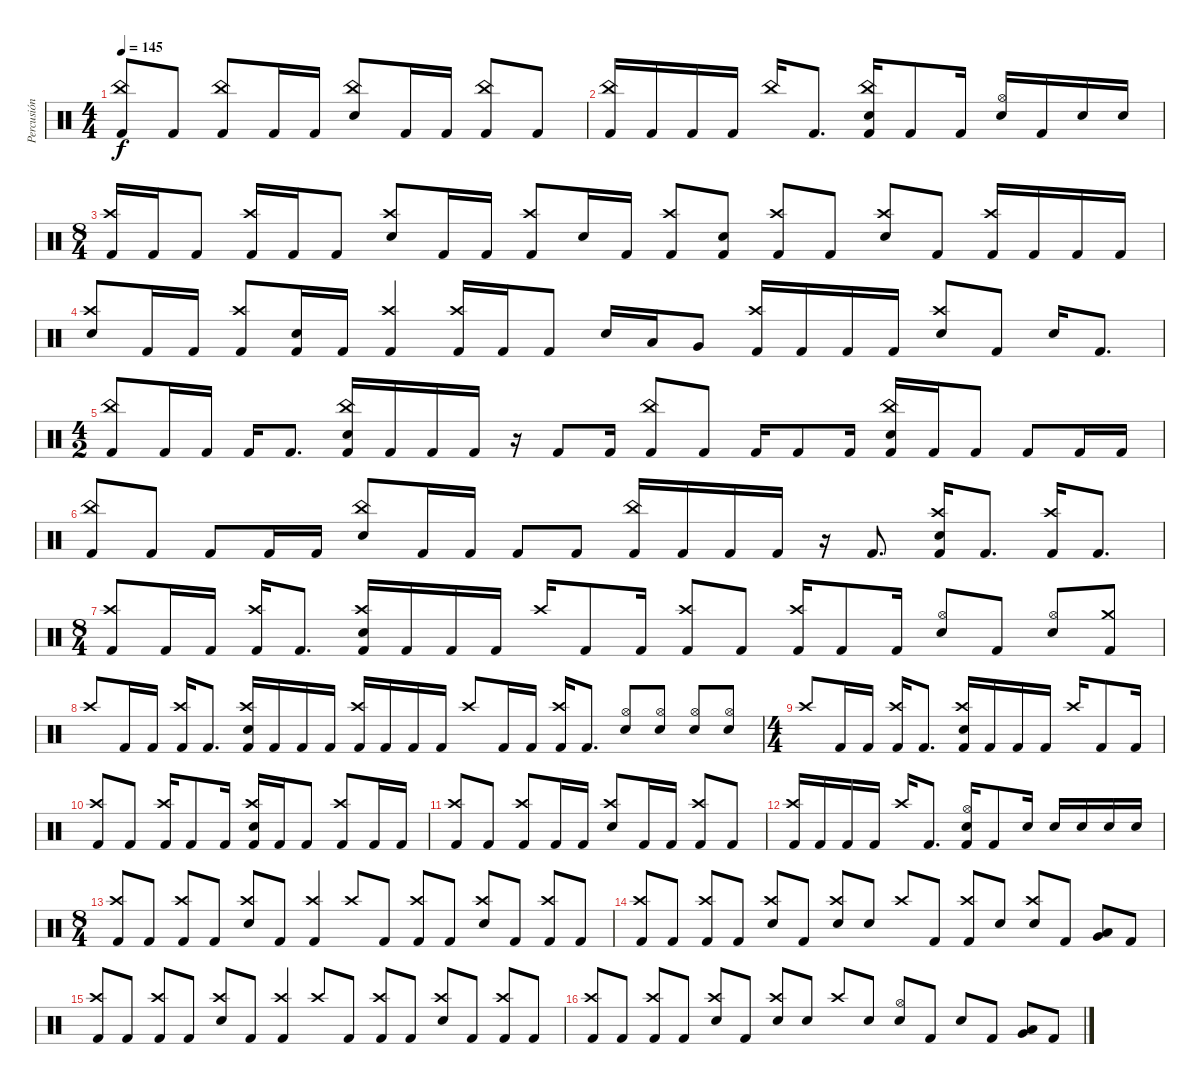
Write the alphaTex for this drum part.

\track ("Percusión" "Percusión") {instrument percussion}
\staff {score}
\articulation defaults
\ts (4 4)
\tempo 145
\clef neutral
\ks c
("China (hit)" "Kick (hit) 2").8{dy f beam Up} "Kick (hit) 2".8{beam Up} ("China (hit)" "Kick (hit) 2").8{beam Up} "Kick (hit) 2".16{beam Up} "Kick (hit) 2".16{beam Up} ("China (hit)" "Electric Snare (hit)").8{beam Up} "Kick (hit) 2".16{beam Up} "Kick (hit) 2".16{beam Up} ("China (hit)" "Kick (hit) 2").8{beam Up} "Kick (hit) 2".8{beam Up} |
("China (hit)" "Kick (hit) 2").16{beam Up} "Kick (hit) 2".16{beam Up} "Kick (hit) 2".16{beam Up} "Kick (hit) 2".16{beam Up} "China (hit)".16{beam Up} "Kick (hit) 2".8{d beam Up} ("China (hit)" "Electric Snare (hit)" "Kick (hit) 2").16{beam Up} "Kick (hit) 2".8{beam Up} "Kick (hit) 2".16{beam Up} ("Hi-Hat (open)" "Electric Snare (hit)").16{beam Up} "Kick (hit) 2".16{beam Up} "Electric Snare (hit)".16{beam Up} "Electric Snare (hit)".16{beam Up} |
\ts (8 4)
("Crash high (hit)" "Kick (hit) 2").16{beam Up} "Kick (hit) 2".16{beam Up} "Kick (hit) 2".8{beam Up} ("Crash high (hit)" "Kick (hit) 2").16{beam Up} "Kick (hit) 2".16{beam Up} "Kick (hit) 2".8{beam Up} ("Crash high (hit)" "Electric Snare (hit)").8{beam Up} "Kick (hit) 2".16{beam Up} "Kick (hit) 2".16{beam Up} ("Crash high (hit)" "Kick (hit) 2").8{beam Up} "Electric Snare (hit)".16{beam Up} "Kick (hit) 2".16{beam Up} ("Crash high (hit)" "Kick (hit) 2").8{beam Up} ("Electric Snare (hit)" "Kick (hit) 2").8{beam Up} ("Crash high (hit)" "Kick (hit) 2").8{beam Up} "Kick (hit) 2".8{beam Up} ("Crash high (hit)" "Electric Snare (hit)").8{beam Up} "Kick (hit) 2".8{beam Up} ("Crash high (hit)" "Kick (hit) 2").16{beam Up} "Kick (hit) 2".16{beam Up} "Kick (hit) 2".16{beam Up} "Kick (hit) 2".16{beam Up} |
("Crash high (hit)" "Electric Snare (hit)").8{beam Up} "Kick (hit) 2".16{beam Up} "Kick (hit) 2".16{beam Up} ("Crash high (hit)" "Kick (hit) 2").8{beam Up} ("Electric Snare (hit)" "Kick (hit) 2").16{beam Up} "Kick (hit) 2".16{beam Up} ("Crash high (hit)" "Kick (hit) 2").4{beam Up} ("Crash high (hit)" "Kick (hit) 2").16{beam Up} "Kick (hit) 2".16{beam Up} "Kick (hit) 2".8{beam Up} "Electric Snare (hit)".16 "Low Tom (hit)".16 "Very Low Tom (hit)".8 ("Crash high (hit)" "Kick (hit) 2").16{beam Up} "Kick (hit) 2".16{beam Up} "Kick (hit) 2".16{beam Up} "Kick (hit) 2".16{beam Up} ("Crash high (hit)" "Electric Snare (hit)").8{beam Up} "Kick (hit) 2".8{beam Up} "Electric Snare (hit)".16 "Kick (hit) 2".8{d} |
\ts (4 2)
("China (hit)" "Kick (hit) 2").8{beam Up} "Kick (hit) 2".16{beam Up} "Kick (hit) 2".16{beam Up} "Kick (hit) 2".16 "Kick (hit) 2".8{d} ("China (hit)" "Electric Snare (hit)" "Kick (hit) 2").16{beam Up} "Kick (hit) 2".16{beam Up} "Kick (hit) 2".16{beam Up} "Kick (hit) 2".16{beam Up} r.16 "Kick (hit) 2".8 "Kick (hit) 2".16 ("China (hit)" "Kick (hit) 2").8{beam Up} "Kick (hit) 2".8{beam Up} "Kick (hit) 2".16 "Kick (hit) 2".8 "Kick (hit) 2".16 ("China (hit)" "Electric Snare (hit)" "Kick (hit) 2").16{beam Up} "Kick (hit) 2".16{beam Up} "Kick (hit) 2".8{beam Up} "Kick (hit) 2".8 "Kick (hit) 2".16 "Kick (hit) 2".16 |
("China (hit)" "Kick (hit) 2").8{beam Up} "Kick (hit) 2".8{beam Up} "Kick (hit) 2".8 "Kick (hit) 2".16 "Kick (hit) 2".16 ("China (hit)" "Electric Snare (hit)").8{beam Up} "Kick (hit) 2".16{beam Up} "Kick (hit) 2".16{beam Up} "Kick (hit) 2".8 "Kick (hit) 2".8 ("China (hit)" "Kick (hit) 2").16{beam Up} "Kick (hit) 2".16{beam Up} "Kick (hit) 2".16{beam Up} "Kick (hit) 2".16{beam Up} r.16 "Kick (hit) 2".8{d} ("Crash high (hit)" "Electric Snare (hit)" "Kick (hit) 2").16{beam Up} "Kick (hit) 2".8{d beam Up} ("Crash high (hit)" "Kick (hit) 2").16{beam Up} "Kick (hit) 2".8{d beam Up} |
\ts (8 4)
("Crash high (hit)" "Kick (hit) 2").8{beam Up} "Kick (hit) 2".16{beam Up} "Kick (hit) 2".16{beam Up} ("Crash high (hit)" "Kick (hit) 2").16{beam Up} "Kick (hit) 2".8{d beam Up} ("Crash high (hit)" "Electric Snare (hit)" "Kick (hit) 2").16{beam Up} "Kick (hit) 2".16{beam Up} "Kick (hit) 2".16{beam Up} "Kick (hit) 2".16{beam Up} "Crash high (hit)".16{beam Up} "Kick (hit) 2".8{beam Up} "Kick (hit) 2".16{beam Up} ("Crash high (hit)" "Kick (hit) 2").8{beam Up} "Kick (hit) 2".8{beam Up} ("Crash high (hit)" "Kick (hit) 2").16{beam Up} "Kick (hit) 2".8{beam Up} "Kick (hit) 2".16{beam Up} ("Hi-Hat (open)" "Electric Snare (hit)").8{beam Up} "Kick (hit) 2".8{beam Up} ("Hi-Hat (open)" "Electric Snare (hit)").8{beam Up} ("Crash medium (hit)" "Kick (hit) 2").8{beam Up} |
"Crash high (hit)".8{beam Up} "Kick (hit) 2".16{beam Up} "Kick (hit) 2".16{beam Up} ("Crash high (hit)" "Kick (hit) 2").16{beam Up} "Kick (hit) 2".8{d beam Up} ("Crash high (hit)" "Electric Snare (hit)" "Kick (hit) 2").16{beam Up} "Kick (hit) 2".16{beam Up} "Kick (hit) 2".16{beam Up} "Kick (hit) 2".16{beam Up} ("Crash high (hit)" "Kick (hit) 2").16{beam Up} "Kick (hit) 2".16{beam Up} "Kick (hit) 2".16{beam Up} "Kick (hit) 2".16{beam Up} "Crash high (hit)".8{beam Up} "Kick (hit) 2".16{beam Up} "Kick (hit) 2".16{beam Up} ("Crash high (hit)" "Kick (hit) 2").16{beam Up} "Kick (hit) 2".8{d beam Up} ("Hi-Hat (open)" "Electric Snare (hit)").8{beam Up} ("Hi-Hat (open)" "Electric Snare (hit)").8{beam Up} ("Hi-Hat (open)" "Electric Snare (hit)").8{beam Up} ("Hi-Hat (open)" "Electric Snare (hit)").8{beam Up} |
\ts (4 4)
"Crash high (hit)".8{beam Up} "Kick (hit) 2".16{beam Up} "Kick (hit) 2".16{beam Up} ("Crash high (hit)" "Kick (hit) 2").16{beam Up} "Kick (hit) 2".8{d beam Up} ("Crash high (hit)" "Electric Snare (hit)" "Kick (hit) 2").16{beam Up} "Kick (hit) 2".16{beam Up} "Kick (hit) 2".16{beam Up} "Kick (hit) 2".16{beam Up} "Crash high (hit)".16{beam Up} "Kick (hit) 2".8{beam Up} "Kick (hit) 2".16{beam Up} |
("Crash high (hit)" "Kick (hit) 2").8{beam Up} "Kick (hit) 2".8{beam Up} ("Crash high (hit)" "Kick (hit) 2").16{beam Up} "Kick (hit) 2".8{beam Up} "Kick (hit) 2".16{beam Up} ("Crash high (hit)" "Electric Snare (hit)" "Kick (hit) 2").16{beam Up} "Kick (hit) 2".16{beam Up} "Kick (hit) 2".8{beam Up} ("Crash high (hit)" "Kick (hit) 2").8{beam Up} "Kick (hit) 2".16{beam Up} "Kick (hit) 2".16{beam Up} |
("Crash high (hit)" "Kick (hit) 2").8{beam Up} "Kick (hit) 2".8{beam Up} ("Crash high (hit)" "Kick (hit) 2").8{beam Up} "Kick (hit) 2".16{beam Up} "Kick (hit) 2".16{beam Up} ("Crash high (hit)" "Electric Snare (hit)").8{beam Up} "Kick (hit) 2".16{beam Up} "Kick (hit) 2".16{beam Up} ("Crash high (hit)" "Kick (hit) 2").8{beam Up} "Kick (hit) 2".8{beam Up} |
("Crash high (hit)" "Kick (hit) 2").16{beam Up} "Kick (hit) 2".16{beam Up} "Kick (hit) 2".16{beam Up} "Kick (hit) 2".16{beam Up} "Crash high (hit)".16{beam Up} "Kick (hit) 2".8{d beam Up} ("Hi-Hat (open)" "Electric Snare (hit)" "Kick (hit) 2").16{beam Up} "Kick (hit) 2".8{beam Up} "Electric Snare (hit)".16{beam Up} "Electric Snare (hit)".16{beam Up} "Electric Snare (hit)".16{beam Up} "Electric Snare (hit)".16{beam Up} "Electric Snare (hit)".16{beam Up} |
\ts (8 4)
("Crash high (hit)" "Kick (hit) 2").8{beam Up} "Kick (hit) 2".8{beam Up} ("Crash high (hit)" "Kick (hit) 2").8{beam Up} "Kick (hit) 2".8{beam Up} ("Crash high (hit)" "Electric Snare (hit)").8{beam Up} "Kick (hit) 2".8{beam Up} ("Crash high (hit)" "Kick (hit) 2").4{beam Up} "Crash high (hit)".8{beam Up} "Kick (hit) 2".8{beam Up} ("Crash high (hit)" "Kick (hit) 2").8{beam Up} "Kick (hit) 2".8{beam Up} ("Crash high (hit)" "Electric Snare (hit)").8{beam Up} "Kick (hit) 2".8{beam Up} ("Crash high (hit)" "Kick (hit) 2").8{beam Up} "Kick (hit) 2".8{beam Up} |
("Crash high (hit)" "Kick (hit) 2").8{beam Up} "Kick (hit) 2".8{beam Up} ("Crash high (hit)" "Kick (hit) 2").8{beam Up} "Kick (hit) 2".8{beam Up} ("Crash high (hit)" "Electric Snare (hit)").8{beam Up} "Kick (hit) 2".8{beam Up} ("Crash high (hit)" "Electric Snare (hit)").8{beam Up} "Electric Snare (hit)".8{beam Up} "Crash high (hit)".8{beam Up} "Kick (hit) 2".8{beam Up} ("Crash high (hit)" "Kick (hit) 2").8{beam Up} "Electric Snare (hit)".8{beam Up} ("Crash high (hit)" "Electric Snare (hit)").8{beam Up} "Kick (hit) 2".8{beam Up} ("Low Tom (hit)" "Very Low Tom (hit)").8{beam Up} "Kick (hit) 2".8{beam Up} |
("Crash high (hit)" "Kick (hit) 2").8{beam Up} "Kick (hit) 2".8{beam Up} ("Crash high (hit)" "Kick (hit) 2").8{beam Up} "Kick (hit) 2".8{beam Up} ("Crash high (hit)" "Electric Snare (hit)").8{beam Up} "Kick (hit) 2".8{beam Up} ("Crash high (hit)" "Kick (hit) 2").4{beam Up} "Crash high (hit)".8{beam Up} "Kick (hit) 2".8{beam Up} ("Crash high (hit)" "Kick (hit) 2").8{beam Up} "Kick (hit) 2".8{beam Up} ("Crash high (hit)" "Electric Snare (hit)").8{beam Up} "Kick (hit) 2".8{beam Up} ("Crash high (hit)" "Kick (hit) 2").8{beam Up} "Kick (hit) 2".8{beam Up} |
("Crash high (hit)" "Kick (hit) 2").8{beam Up} "Kick (hit) 2".8{beam Up} ("Crash high (hit)" "Kick (hit) 2").8{beam Up} "Kick (hit) 2".8{beam Up} ("Crash high (hit)" "Electric Snare (hit)").8{beam Up} "Kick (hit) 2".8{beam Up} ("Crash high (hit)" "Electric Snare (hit)").8{beam Up} "Electric Snare (hit)".8{beam Up} "Crash high (hit)".8{beam Up} "Electric Snare (hit)".8{beam Up} ("Hi-Hat (open)" "Electric Snare (hit)").8{beam Up} "Kick (hit) 2".8{beam Up} "Electric Snare (hit)".8 "Kick (hit) 2".8 ("Low Tom (hit)" "Very Low Tom (hit)").8 "Kick (hit) 2".8
